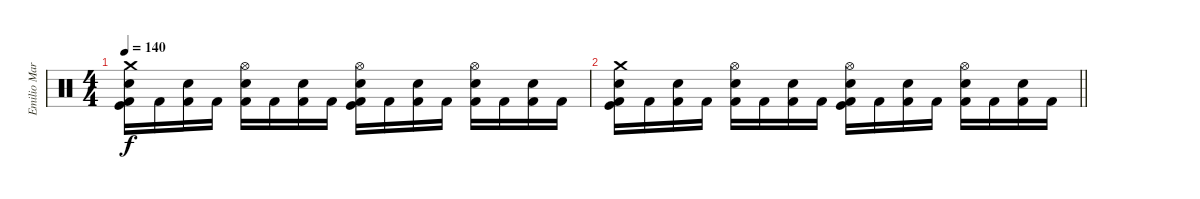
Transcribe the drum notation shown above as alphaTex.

\track ("Emilio Marquez \"El sadistico\"" "Emilio Mar") {instrument percussion}
\staff {score}
\articulation defaults
\ts (4 4)
\tempo 140
\clef neutral
\ks c
("Crash medium (hit)" "Electric Snare (hit)" "Kick (hit)" "Kick (hit) 2").16{dy f} "Kick (hit) 2".16 ("Electric Snare (hit)" "Kick (hit) 2").16 "Kick (hit) 2".16 ("Hi-Hat (open)" "Electric Snare (hit)" "Kick (hit) 2").16 "Kick (hit) 2".16 ("Electric Snare (hit)" "Kick (hit) 2").16 "Kick (hit) 2".16 ("Hi-Hat (open)" "Electric Snare (hit)" "Kick (hit)" "Kick (hit) 2").16 "Kick (hit) 2".16 ("Electric Snare (hit)" "Kick (hit) 2").16 "Kick (hit) 2".16 ("Hi-Hat (open)" "Electric Snare (hit)" "Kick (hit) 2").16 "Kick (hit) 2".16 ("Electric Snare (hit)" "Kick (hit) 2").16 "Kick (hit) 2".16 |
\barLineRight lightlight
("Crash medium (hit)" "Electric Snare (hit)" "Kick (hit)" "Kick (hit) 2").16 "Kick (hit) 2".16 ("Electric Snare (hit)" "Kick (hit) 2").16 "Kick (hit) 2".16 ("Hi-Hat (open)" "Electric Snare (hit)" "Kick (hit) 2").16 "Kick (hit) 2".16 ("Electric Snare (hit)" "Kick (hit) 2").16 "Kick (hit) 2".16 ("Hi-Hat (open)" "Electric Snare (hit)" "Kick (hit)" "Kick (hit) 2").16 "Kick (hit) 2".16 ("Electric Snare (hit)" "Kick (hit) 2").16 "Kick (hit) 2".16 ("Hi-Hat (open)" "Electric Snare (hit)" "Kick (hit) 2").16 "Kick (hit) 2".16 ("Electric Snare (hit)" "Kick (hit) 2").16 "Kick (hit) 2".16
